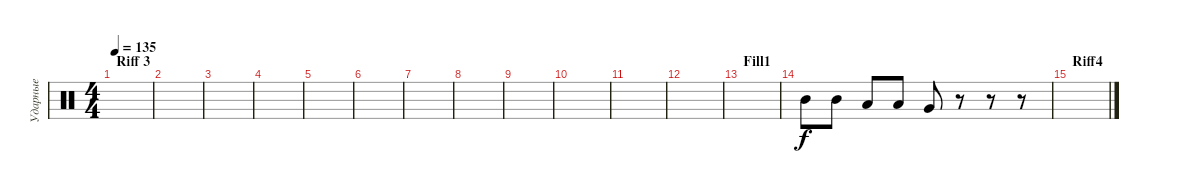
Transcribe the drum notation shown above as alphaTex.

\track ("Ударные" "Ударные") {instrument percussion}
\staff {score}
\articulation defaults
\ts (4 4)
\section ("" "Riff 3")
\tempo 135
\clef neutral
\ks c
|
|
|
|
|
|
|
|
|
|
|
|
\section ("" "Fill1")
|
"Mid Tom (hit)".8 "Mid Tom (hit)".8 "Low Tom (hit)".8 "Low Tom (hit)".8 "Very Low Tom (hit)".8 r.8 r.8 r.8 |
\section ("" "Riff4")
